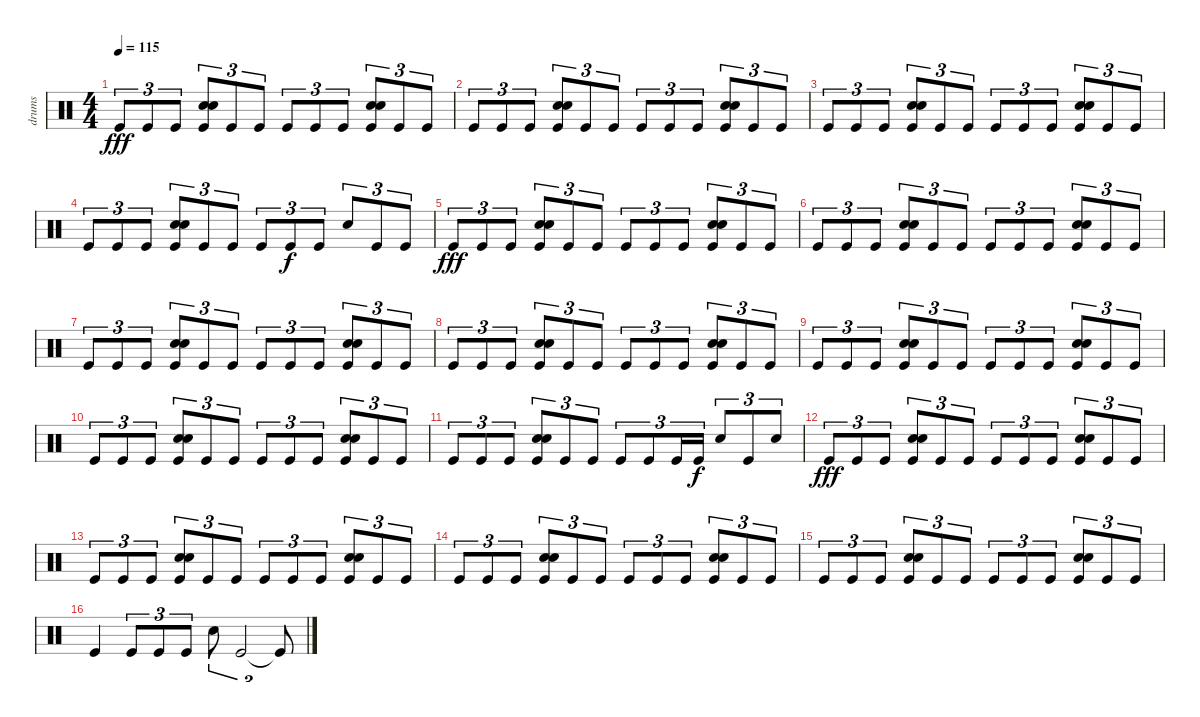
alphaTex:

\track ("drums" "drums") {instrument percussion}
\staff {score}
\articulation defaults
\ts (4 4)
\tempo 115
\clef neutral
\ks c "Kick (hit)".8{tu (3 2) dy fff} "Kick (hit)".8{tu (3 2)} "Kick (hit)".8{tu (3 2)}
("Electric Snare (hit)" "Snare (hit) 2" "Kick (hit)").8{tu (3 2)} "Kick (hit)".8{tu (3 2)} "Kick (hit)".8{tu (3 2)} "Kick (hit)".8{tu (3 2)} "Kick (hit)".8{tu (3 2)} "Kick (hit)".8{tu (3 2)} ("Electric Snare (hit)" "Snare (hit) 2" "Kick (hit)").8{tu (3 2)} "Kick (hit)".8{tu (3 2)} "Kick (hit)".8{tu (3 2)} |
"Kick (hit)".8{tu (3 2)} "Kick (hit)".8{tu (3 2)} "Kick (hit)".8{tu (3 2)} ("Electric Snare (hit)" "Snare (hit) 2" "Kick (hit)").8{tu (3 2)} "Kick (hit)".8{tu (3 2)} "Kick (hit)".8{tu (3 2)} "Kick (hit)".8{tu (3 2)} "Kick (hit)".8{tu (3 2)} "Kick (hit)".8{tu (3 2)} ("Electric Snare (hit)" "Snare (hit) 2" "Kick (hit)").8{tu (3 2)} "Kick (hit)".8{tu (3 2)} "Kick (hit)".8{tu (3 2)} |
"Kick (hit)".8{tu (3 2)} "Kick (hit)".8{tu (3 2)} "Kick (hit)".8{tu (3 2)} ("Electric Snare (hit)" "Snare (hit) 2" "Kick (hit)").8{tu (3 2)} "Kick (hit)".8{tu (3 2)} "Kick (hit)".8{tu (3 2)} "Kick (hit)".8{tu (3 2)} "Kick (hit)".8{tu (3 2)} "Kick (hit)".8{tu (3 2)} ("Electric Snare (hit)" "Snare (hit) 2" "Kick (hit)").8{tu (3 2)} "Kick (hit)".8{tu (3 2)} "Kick (hit)".8{tu (3 2)} |
"Kick (hit)".8{tu (3 2)} "Kick (hit)".8{tu (3 2)} "Kick (hit)".8{tu (3 2)} ("Electric Snare (hit)" "Snare (hit) 2" "Kick (hit)").8{tu (3 2)} "Kick (hit)".8{tu (3 2)} "Kick (hit)".8{tu (3 2)} "Kick (hit)".8{tu (3 2)} "Kick (hit)".8{tu (3 2) dy f} "Kick (hit)".8{tu (3 2)} "Electric Snare (hit)".8{tu (3 2)} "Kick (hit)".8{tu (3 2)} "Kick (hit)".8{tu (3 2)} |
"Kick (hit)".8{tu (3 2) dy fff} "Kick (hit)".8{tu (3 2)} "Kick (hit)".8{tu (3 2)} ("Electric Snare (hit)" "Snare (hit) 2" "Kick (hit)").8{tu (3 2)} "Kick (hit)".8{tu (3 2)} "Kick (hit)".8{tu (3 2)} "Kick (hit)".8{tu (3 2)} "Kick (hit)".8{tu (3 2)} "Kick (hit)".8{tu (3 2)} ("Electric Snare (hit)" "Snare (hit) 2" "Kick (hit)").8{tu (3 2)} "Kick (hit)".8{tu (3 2)} "Kick (hit)".8{tu (3 2)} |
"Kick (hit)".8{tu (3 2)} "Kick (hit)".8{tu (3 2)} "Kick (hit)".8{tu (3 2)} ("Electric Snare (hit)" "Snare (hit) 2" "Kick (hit)").8{tu (3 2)} "Kick (hit)".8{tu (3 2)} "Kick (hit)".8{tu (3 2)} "Kick (hit)".8{tu (3 2)} "Kick (hit)".8{tu (3 2)} "Kick (hit)".8{tu (3 2)} ("Electric Snare (hit)" "Snare (hit) 2" "Kick (hit)").8{tu (3 2)} "Kick (hit)".8{tu (3 2)} "Kick (hit)".8{tu (3 2)} |
"Kick (hit)".8{tu (3 2)} "Kick (hit)".8{tu (3 2)} "Kick (hit)".8{tu (3 2)} ("Electric Snare (hit)" "Snare (hit) 2" "Kick (hit)").8{tu (3 2)} "Kick (hit)".8{tu (3 2)} "Kick (hit)".8{tu (3 2)} "Kick (hit)".8{tu (3 2)} "Kick (hit)".8{tu (3 2)} "Kick (hit)".8{tu (3 2)} ("Electric Snare (hit)" "Snare (hit) 2" "Kick (hit)").8{tu (3 2)} "Kick (hit)".8{tu (3 2)} "Kick (hit)".8{tu (3 2)} |
"Kick (hit)".8{tu (3 2)} "Kick (hit)".8{tu (3 2)} "Kick (hit)".8{tu (3 2)} ("Electric Snare (hit)" "Snare (hit) 2" "Kick (hit)").8{tu (3 2)} "Kick (hit)".8{tu (3 2)} "Kick (hit)".8{tu (3 2)} "Kick (hit)".8{tu (3 2)} "Kick (hit)".8{tu (3 2)} "Kick (hit)".8{tu (3 2)} ("Electric Snare (hit)" "Snare (hit) 2" "Kick (hit)").8{tu (3 2)} "Kick (hit)".8{tu (3 2)} "Kick (hit)".8{tu (3 2)} |
"Kick (hit)".8{tu (3 2)} "Kick (hit)".8{tu (3 2)} "Kick (hit)".8{tu (3 2)} ("Electric Snare (hit)" "Snare (hit) 2" "Kick (hit)").8{tu (3 2)} "Kick (hit)".8{tu (3 2)} "Kick (hit)".8{tu (3 2)} "Kick (hit)".8{tu (3 2)} "Kick (hit)".8{tu (3 2)} "Kick (hit)".8{tu (3 2)} ("Electric Snare (hit)" "Snare (hit) 2" "Kick (hit)").8{tu (3 2)} "Kick (hit)".8{tu (3 2)} "Kick (hit)".8{tu (3 2)} |
"Kick (hit)".8{tu (3 2)} "Kick (hit)".8{tu (3 2)} "Kick (hit)".8{tu (3 2)} ("Electric Snare (hit)" "Snare (hit) 2" "Kick (hit)").8{tu (3 2)} "Kick (hit)".8{tu (3 2)} "Kick (hit)".8{tu (3 2)} "Kick (hit)".8{tu (3 2)} "Kick (hit)".8{tu (3 2)} "Kick (hit)".8{tu (3 2)} ("Electric Snare (hit)" "Snare (hit) 2" "Kick (hit)").8{tu (3 2)} "Kick (hit)".8{tu (3 2)} "Kick (hit)".8{tu (3 2)} |
"Kick (hit)".8{tu (3 2)} "Kick (hit)".8{tu (3 2)} "Kick (hit)".8{tu (3 2)} ("Electric Snare (hit)" "Snare (hit) 2" "Kick (hit)").8{tu (3 2)} "Kick (hit)".8{tu (3 2)} "Kick (hit)".8{tu (3 2)} "Kick (hit)".8{tu (3 2)} "Kick (hit)".8{tu (3 2)} "Kick (hit)".16{tu (3 2)} "Kick (hit)".16{tu (3 2) dy f} "Electric Snare (hit)".8{tu (3 2)} "Kick (hit)".8{tu (3 2)} "Electric Snare (hit)".8{tu (3 2)} |
"Kick (hit)".8{tu (3 2) dy fff} "Kick (hit)".8{tu (3 2)} "Kick (hit)".8{tu (3 2)} ("Electric Snare (hit)" "Snare (hit) 2" "Kick (hit)").8{tu (3 2)} "Kick (hit)".8{tu (3 2)} "Kick (hit)".8{tu (3 2)} "Kick (hit)".8{tu (3 2)} "Kick (hit)".8{tu (3 2)} "Kick (hit)".8{tu (3 2)} ("Electric Snare (hit)" "Snare (hit) 2" "Kick (hit)").8{tu (3 2)} "Kick (hit)".8{tu (3 2)} "Kick (hit)".8{tu (3 2)} |
"Kick (hit)".8{tu (3 2)} "Kick (hit)".8{tu (3 2)} "Kick (hit)".8{tu (3 2)} ("Electric Snare (hit)" "Snare (hit) 2" "Kick (hit)").8{tu (3 2)} "Kick (hit)".8{tu (3 2)} "Kick (hit)".8{tu (3 2)} "Kick (hit)".8{tu (3 2)} "Kick (hit)".8{tu (3 2)} "Kick (hit)".8{tu (3 2)} ("Electric Snare (hit)" "Snare (hit) 2" "Kick (hit)").8{tu (3 2)} "Kick (hit)".8{tu (3 2)} "Kick (hit)".8{tu (3 2)} |
"Kick (hit)".8{tu (3 2)} "Kick (hit)".8{tu (3 2)} "Kick (hit)".8{tu (3 2)} ("Electric Snare (hit)" "Snare (hit) 2" "Kick (hit)").8{tu (3 2)} "Kick (hit)".8{tu (3 2)} "Kick (hit)".8{tu (3 2)} "Kick (hit)".8{tu (3 2)} "Kick (hit)".8{tu (3 2)} "Kick (hit)".8{tu (3 2)} ("Electric Snare (hit)" "Snare (hit) 2" "Kick (hit)").8{tu (3 2)} "Kick (hit)".8{tu (3 2)} "Kick (hit)".8{tu (3 2)} |
"Kick (hit)".8{tu (3 2)} "Kick (hit)".8{tu (3 2)} "Kick (hit)".8{tu (3 2)} ("Electric Snare (hit)" "Snare (hit) 2" "Kick (hit)").8{tu (3 2)} "Kick (hit)".8{tu (3 2)} "Kick (hit)".8{tu (3 2)} "Kick (hit)".8{tu (3 2)} "Kick (hit)".8{tu (3 2)} "Kick (hit)".8{tu (3 2)} ("Electric Snare (hit)" "Snare (hit) 2" "Kick (hit)").8{tu (3 2)} "Kick (hit)".8{tu (3 2)} "Kick (hit)".8{tu (3 2)} |
"Kick (hit)".4 "Kick (hit)".8{tu (3 2)} "Kick (hit)".8{tu (3 2)} "Kick (hit)".8{tu (3 2)} "Electric Snare (hit)".8{tu (3 2)} "Kick (hit)".2{tu (3 2)} "Kick (hit)"{t}.8{tu (3 2)}
